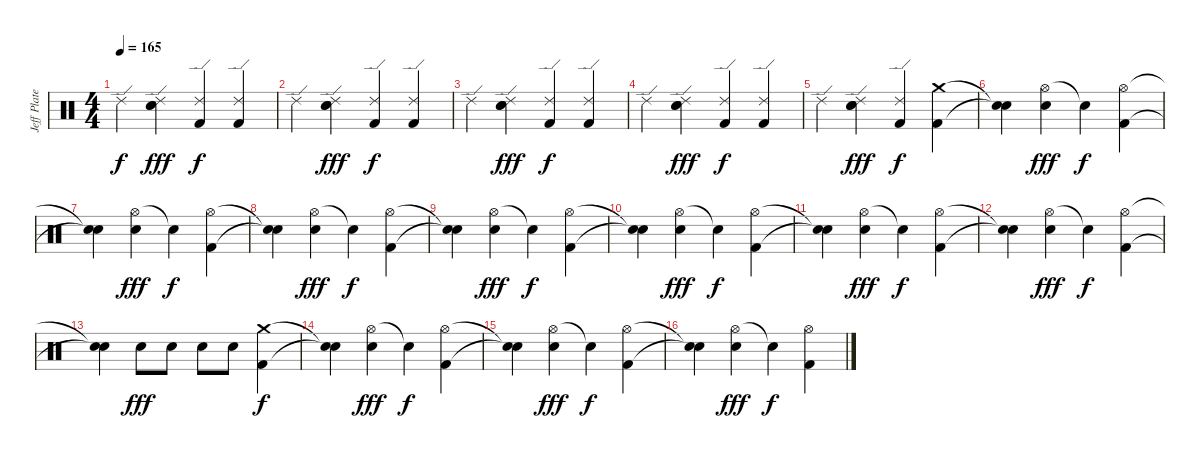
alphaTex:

\track ("Jeff Plate" "Jeff Plate") {instrument percussion}
\staff {score}
\articulation defaults
\ts (4 4)
\tempo 165
\clef neutral
\ks c "Ride (edge) 2".4{dy f}
("Ride (edge) 2" "Electric Snare (hit)" "Electric Snare (hit)").4{dy fff} ("Ride (edge) 2" "Kick (hit) 2").4{dy f} ("Ride (edge) 2" "Kick (hit) 2").4 |
"Ride (edge) 2".4 ("Ride (edge) 2" "Electric Snare (hit)" "Electric Snare (hit)").4{dy fff} ("Ride (edge) 2" "Kick (hit) 2").4{dy f} ("Ride (edge) 2" "Kick (hit) 2").4 |
"Ride (edge) 2".4 ("Ride (edge) 2" "Electric Snare (hit)" "Electric Snare (hit)").4{dy fff} ("Ride (edge) 2" "Kick (hit) 2").4{dy f} ("Ride (edge) 2" "Kick (hit) 2").4 |
"Ride (edge) 2".4 ("Ride (edge) 2" "Electric Snare (hit)" "Electric Snare (hit)").4{dy fff} ("Ride (edge) 2" "Kick (hit) 2").4{dy f} ("Ride (edge) 2" "Kick (hit) 2").4 |
"Ride (edge) 2".4 ("Ride (edge) 2" "Electric Snare (hit)" "Electric Snare (hit)").4{dy fff} ("Ride (edge) 2" "Kick (hit) 2").4{dy f} ("Crash medium (hit)" "Kick (hit) 2").4 |
("Snare (hit)"{t} "Snare (hit)"{t}).4 ("Hi-Hat (open)" "Electric Snare (hit)").4{dy fff} "Snare (hit)"{t}.4{dy f} ("Hi-Hat (open)" "Kick (hit) 2").4 |
("Snare (hit)"{t} "Snare (hit)"{t}).4 ("Hi-Hat (open)" "Electric Snare (hit)").4{dy fff} "Snare (hit)"{t}.4{dy f} ("Hi-Hat (open)" "Kick (hit) 2").4 |
("Snare (hit)"{t} "Snare (hit)"{t}).4 ("Hi-Hat (open)" "Electric Snare (hit)").4{dy fff} "Snare (hit)"{t}.4{dy f} ("Hi-Hat (open)" "Kick (hit) 2").4 |
("Snare (hit)"{t} "Snare (hit)"{t}).4 ("Hi-Hat (open)" "Electric Snare (hit)").4{dy fff} "Snare (hit)"{t}.4{dy f} ("Hi-Hat (open)" "Kick (hit) 2").4 |
("Snare (hit)"{t} "Snare (hit)"{t}).4 ("Hi-Hat (open)" "Electric Snare (hit)").4{dy fff} "Snare (hit)"{t}.4{dy f} ("Hi-Hat (open)" "Kick (hit) 2").4 |
("Snare (hit)"{t} "Snare (hit)"{t}).4 ("Hi-Hat (open)" "Electric Snare (hit)").4{dy fff} "Snare (hit)"{t}.4{dy f} ("Hi-Hat (open)" "Kick (hit) 2").4 |
("Snare (hit)"{t} "Snare (hit)"{t}).4 ("Hi-Hat (open)" "Electric Snare (hit)").4{dy fff} "Snare (hit)"{t}.4{dy f} ("Hi-Hat (open)" "Kick (hit) 2").4 |
("Electric Snare (hit)"{t} "Snare (hit)"{t}).4 "Electric Snare (hit)".8{dy fff} "Electric Snare (hit)".8 "Electric Snare (hit)".8 "Electric Snare (hit)".8 ("Crash medium (hit)" "Kick (hit) 2").4{dy f} |
("Snare (hit)"{t} "Snare (hit)"{t}).4 ("Hi-Hat (open)" "Electric Snare (hit)").4{dy fff} "Snare (hit)"{t}.4{dy f} ("Hi-Hat (open)" "Kick (hit) 2").4 |
("Snare (hit)"{t} "Snare (hit)"{t}).4 ("Hi-Hat (open)" "Electric Snare (hit)").4{dy fff} "Snare (hit)"{t}.4{dy f} ("Hi-Hat (open)" "Kick (hit) 2").4 |
("Snare (hit)"{t} "Snare (hit)"{t}).4 ("Hi-Hat (open)" "Electric Snare (hit)").4{dy fff} "Snare (hit)"{t}.4{dy f} ("Hi-Hat (open)" "Kick (hit) 2").4
